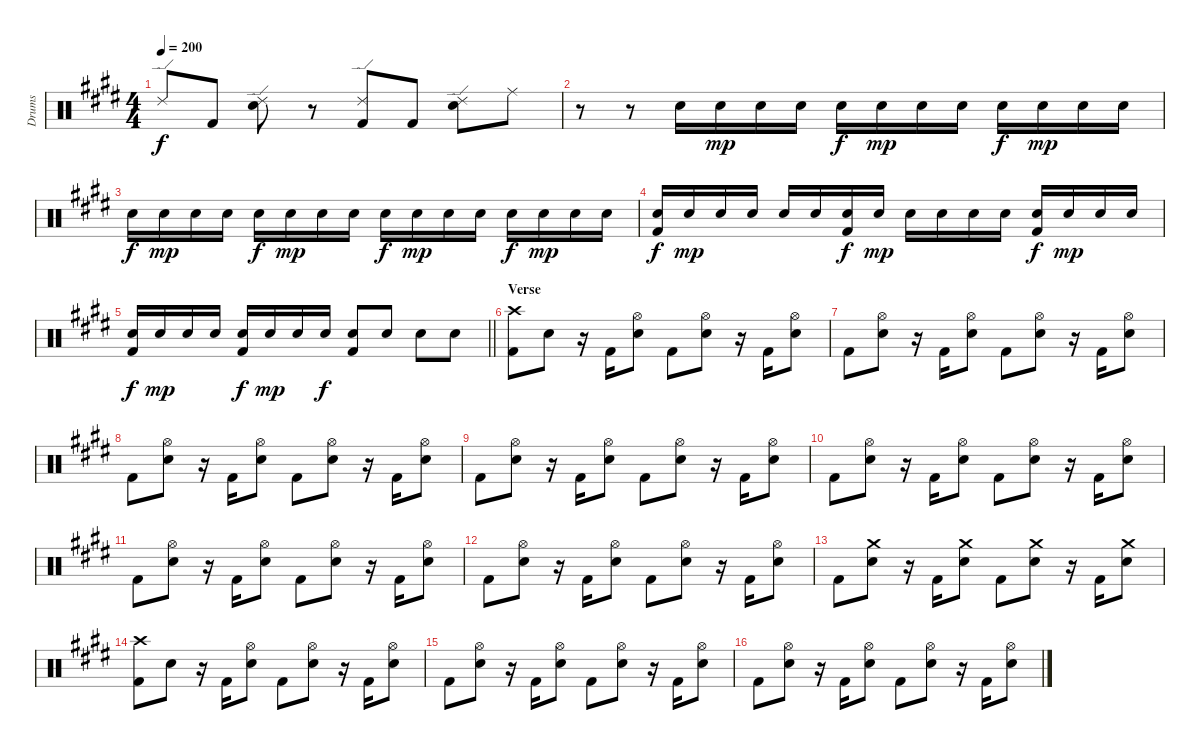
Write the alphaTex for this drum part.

\track ("Drums" "Drums") {instrument percussion}
\staff {score}
\articulation defaults
\ts (4 4)
\tempo 200
\clef neutral
\ks c#minor "Ride (edge) 2".8{dy f} "Kick (hit) 2".8
("Ride (edge) 2" "Electric Snare (hit)").8 r.8 ("Ride (edge) 2" "Kick (hit) 2").8 "Kick (hit) 2".8 ("Ride (edge) 2" "Electric Snare (hit)").8 "Ride (middle)".8 |
r.8 r.8 "Electric Snare (hit)".16 "Electric Snare (hit)".16{dy mp} "Electric Snare (hit)".16 "Electric Snare (hit)".16 "Electric Snare (hit)".16{dy f} "Electric Snare (hit)".16{dy mp} "Electric Snare (hit)".16 "Electric Snare (hit)".16 "Electric Snare (hit)".16{dy f} "Electric Snare (hit)".16{dy mp} "Electric Snare (hit)".16 "Electric Snare (hit)".16 |
"Electric Snare (hit)".16{dy f} "Electric Snare (hit)".16{dy mp} "Electric Snare (hit)".16 "Electric Snare (hit)".16 "Electric Snare (hit)".16{dy f} "Electric Snare (hit)".16{dy mp} "Electric Snare (hit)".16 "Electric Snare (hit)".16 "Electric Snare (hit)".16{dy f} "Electric Snare (hit)".16{dy mp} "Electric Snare (hit)".16 "Electric Snare (hit)".16 "Electric Snare (hit)".16{dy f} "Electric Snare (hit)".16{dy mp} "Electric Snare (hit)".16 "Electric Snare (hit)".16 |
("Electric Snare (hit)" "Kick (hit) 2").16{dy f} "Electric Snare (hit)".16{dy mp} "Electric Snare (hit)".16 "Electric Snare (hit)".16 "Electric Snare (hit)".16 "Electric Snare (hit)".16 ("Electric Snare (hit)" "Kick (hit) 2").16{dy f} "Electric Snare (hit)".16{dy mp} "Electric Snare (hit)".16 "Electric Snare (hit)".16 "Electric Snare (hit)".16 "Electric Snare (hit)".16 ("Electric Snare (hit)" "Kick (hit) 2").16{dy f} "Electric Snare (hit)".16{dy mp} "Electric Snare (hit)".16 "Electric Snare (hit)".16 |
\barLineRight lightlight
("Electric Snare (hit)" "Kick (hit) 2").16{dy f} "Electric Snare (hit)".16{dy mp} "Electric Snare (hit)".16 "Electric Snare (hit)".16 ("Electric Snare (hit)" "Kick (hit) 2").16{dy f} "Electric Snare (hit)".16{dy mp} "Electric Snare (hit)".16 "Electric Snare (hit)".16{dy f} ("Electric Snare (hit)" "Kick (hit) 2").8 "Electric Snare (hit)".8 "Electric Snare (hit)".8 "Electric Snare (hit)".8 |
\section ("" "Verse")
("Crash high (hit)" "Kick (hit) 2").8 "Electric Snare (hit)".8 r.16 "Kick (hit) 2".16 ("Hi-Hat (open)" "Electric Snare (hit)").8 "Kick (hit) 2".8 ("Hi-Hat (open)" "Electric Snare (hit)").8 r.16 "Kick (hit) 2".16 ("Hi-Hat (open)" "Electric Snare (hit)").8 |
"Kick (hit) 2".8 ("Hi-Hat (open)" "Electric Snare (hit)").8 r.16 "Kick (hit) 2".16 ("Hi-Hat (open)" "Electric Snare (hit)").8 "Kick (hit) 2".8 ("Hi-Hat (open)" "Electric Snare (hit)").8 r.16 "Kick (hit) 2".16 ("Hi-Hat (open)" "Electric Snare (hit)").8 |
"Kick (hit) 2".8 ("Hi-Hat (open)" "Electric Snare (hit)").8 r.16 "Kick (hit) 2".16 ("Hi-Hat (open)" "Electric Snare (hit)").8 "Kick (hit) 2".8 ("Hi-Hat (open)" "Electric Snare (hit)").8 r.16 "Kick (hit) 2".16 ("Hi-Hat (open)" "Electric Snare (hit)").8 |
"Kick (hit) 2".8 ("Hi-Hat (open)" "Electric Snare (hit)").8 r.16 "Kick (hit) 2".16 ("Hi-Hat (open)" "Electric Snare (hit)").8 "Kick (hit) 2".8 ("Hi-Hat (open)" "Electric Snare (hit)").8 r.16 "Kick (hit) 2".16 ("Hi-Hat (open)" "Electric Snare (hit)").8 |
"Kick (hit) 2".8 ("Hi-Hat (open)" "Electric Snare (hit)").8 r.16 "Kick (hit) 2".16 ("Hi-Hat (open)" "Electric Snare (hit)").8 "Kick (hit) 2".8 ("Hi-Hat (open)" "Electric Snare (hit)").8 r.16 "Kick (hit) 2".16 ("Hi-Hat (open)" "Electric Snare (hit)").8 |
"Kick (hit) 2".8 ("Hi-Hat (open)" "Electric Snare (hit)").8 r.16 "Kick (hit) 2".16 ("Hi-Hat (open)" "Electric Snare (hit)").8 "Kick (hit) 2".8 ("Hi-Hat (open)" "Electric Snare (hit)").8 r.16 "Kick (hit) 2".16 ("Hi-Hat (open)" "Electric Snare (hit)").8 |
"Kick (hit) 2".8 ("Hi-Hat (open)" "Electric Snare (hit)").8 r.16 "Kick (hit) 2".16 ("Hi-Hat (open)" "Electric Snare (hit)").8 "Kick (hit) 2".8 ("Hi-Hat (open)" "Electric Snare (hit)").8 r.16 "Kick (hit) 2".16 ("Hi-Hat (open)" "Electric Snare (hit)").8 |
"Kick (hit) 2".8 ("Crash medium (hit)" "Electric Snare (hit)").8 r.16 "Kick (hit) 2".16 ("Crash medium (hit)" "Electric Snare (hit)").8 "Kick (hit) 2".8 ("Crash medium (hit)" "Electric Snare (hit)").8 r.16 "Kick (hit) 2".16 ("Crash medium (hit)" "Electric Snare (hit)").8 |
("Crash high (hit)" "Kick (hit) 2").8 "Electric Snare (hit)".8 r.16 "Kick (hit) 2".16 ("Hi-Hat (open)" "Electric Snare (hit)").8 "Kick (hit) 2".8 ("Hi-Hat (open)" "Electric Snare (hit)").8 r.16 "Kick (hit) 2".16 ("Hi-Hat (open)" "Electric Snare (hit)").8 |
"Kick (hit) 2".8 ("Hi-Hat (open)" "Electric Snare (hit)").8 r.16 "Kick (hit) 2".16 ("Hi-Hat (open)" "Electric Snare (hit)").8 "Kick (hit) 2".8 ("Hi-Hat (open)" "Electric Snare (hit)").8 r.16 "Kick (hit) 2".16 ("Hi-Hat (open)" "Electric Snare (hit)").8 |
"Kick (hit) 2".8 ("Hi-Hat (open)" "Electric Snare (hit)").8 r.16 "Kick (hit) 2".16 ("Hi-Hat (open)" "Electric Snare (hit)").8 "Kick (hit) 2".8 ("Hi-Hat (open)" "Electric Snare (hit)").8 r.16 "Kick (hit) 2".16 ("Hi-Hat (open)" "Electric Snare (hit)").8
